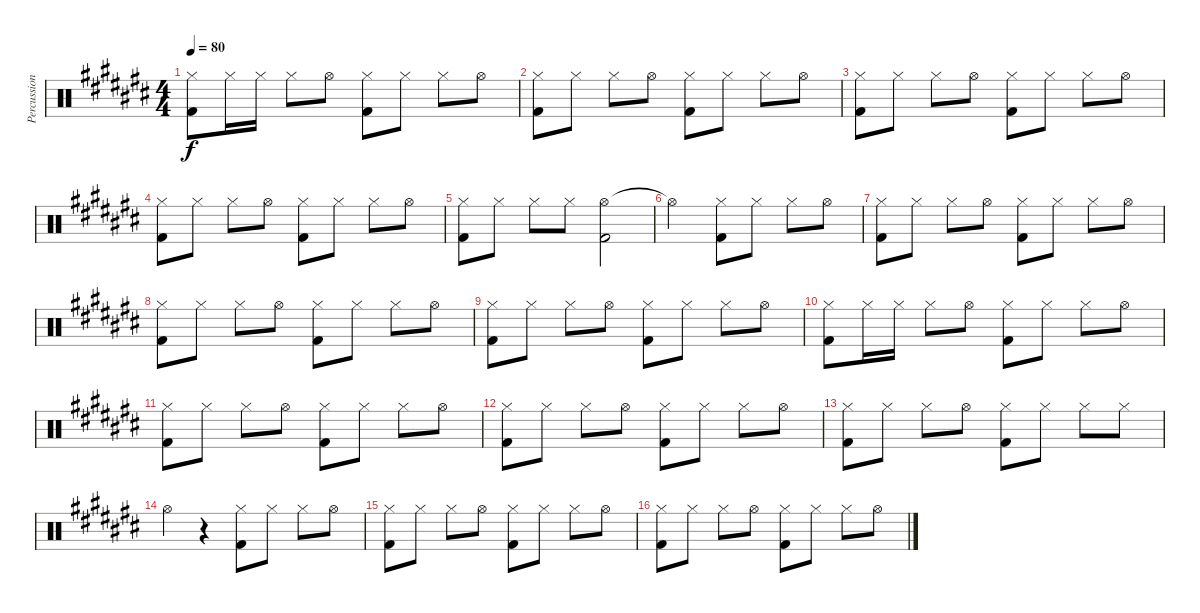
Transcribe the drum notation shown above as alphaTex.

\track ("Percussion" "Percussion") {instrument percussion}
\staff {score}
\articulation defaults
\ts (4 4)
\tempo 80
\clef neutral
\ks c#
("Kick (hit) 2" "Hi-Hat (closed)").8{dy f} "Hi-Hat (closed)".16 "Hi-Hat (closed)".16 "Hi-Hat (closed)".8 "Hi-Hat (open)".8 ("Kick (hit) 2" "Hi-Hat (closed)").8 "Hi-Hat (closed)".8 "Hi-Hat (closed)".8 "Hi-Hat (open)".8 |
("Kick (hit) 2" "Hi-Hat (closed)").8 "Hi-Hat (closed)".8 "Hi-Hat (closed)".8 "Hi-Hat (open)".8 ("Kick (hit) 2" "Hi-Hat (closed)").8 "Hi-Hat (closed)".8 "Hi-Hat (closed)".8 "Hi-Hat (open)".8 |
("Kick (hit) 2" "Hi-Hat (closed)").8 "Hi-Hat (closed)".8 "Hi-Hat (closed)".8 "Hi-Hat (open)".8 ("Kick (hit) 2" "Hi-Hat (closed)").8 "Hi-Hat (closed)".8 "Hi-Hat (closed)".8 "Hi-Hat (open)".8 |
("Kick (hit) 2" "Hi-Hat (closed)").8 "Hi-Hat (closed)".8 "Hi-Hat (closed)".8 "Hi-Hat (open)".8 ("Kick (hit) 2" "Hi-Hat (closed)").8 "Hi-Hat (closed)".8 "Hi-Hat (closed)".8 "Hi-Hat (open)".8 |
("Kick (hit) 2" "Hi-Hat (closed)").8 "Hi-Hat (closed)".8 "Hi-Hat (closed)".8 "Hi-Hat (closed)".8 ("Hi-Hat (open)" "Kick (hit) 2").2 |
"Hi-Hat (open)"{t}.2 ("Kick (hit) 2" "Hi-Hat (closed)").8 "Hi-Hat (closed)".8 "Hi-Hat (closed)".8 "Hi-Hat (open)".8 |
("Kick (hit) 2" "Hi-Hat (closed)").8 "Hi-Hat (closed)".8 "Hi-Hat (closed)".8 "Hi-Hat (open)".8 ("Kick (hit) 2" "Hi-Hat (closed)").8 "Hi-Hat (closed)".8 "Hi-Hat (closed)".8 "Hi-Hat (open)".8 |
("Kick (hit) 2" "Hi-Hat (closed)").8 "Hi-Hat (closed)".8 "Hi-Hat (closed)".8 "Hi-Hat (open)".8 ("Kick (hit) 2" "Hi-Hat (closed)").8 "Hi-Hat (closed)".8 "Hi-Hat (closed)".8 "Hi-Hat (open)".8 |
("Kick (hit) 2" "Hi-Hat (closed)").8 "Hi-Hat (closed)".8 "Hi-Hat (closed)".8 "Hi-Hat (open)".8 ("Kick (hit) 2" "Hi-Hat (closed)").8 "Hi-Hat (closed)".8 "Hi-Hat (closed)".8 "Hi-Hat (open)".8 |
("Kick (hit) 2" "Hi-Hat (closed)").8 "Hi-Hat (closed)".16 "Hi-Hat (closed)".16 "Hi-Hat (closed)".8 "Hi-Hat (open)".8 ("Kick (hit) 2" "Hi-Hat (closed)").8 "Hi-Hat (closed)".8 "Hi-Hat (closed)".8 "Hi-Hat (open)".8 |
("Kick (hit) 2" "Hi-Hat (closed)").8 "Hi-Hat (closed)".8 "Hi-Hat (closed)".8 "Hi-Hat (open)".8 ("Kick (hit) 2" "Hi-Hat (closed)").8 "Hi-Hat (closed)".8 "Hi-Hat (closed)".8 "Hi-Hat (open)".8 |
("Kick (hit) 2" "Hi-Hat (closed)").8 "Hi-Hat (closed)".8 "Hi-Hat (closed)".8 "Hi-Hat (open)".8 ("Kick (hit) 2" "Hi-Hat (closed)").8 "Hi-Hat (closed)".8 "Hi-Hat (closed)".8 "Hi-Hat (open)".8 |
("Kick (hit) 2" "Hi-Hat (closed)").8 "Hi-Hat (closed)".8 "Hi-Hat (closed)".8 "Hi-Hat (open)".8 ("Kick (hit) 2" "Hi-Hat (closed)").8 "Hi-Hat (closed)".8 "Hi-Hat (closed)".8 "Hi-Hat (closed)".8 |
"Hi-Hat (open)".4 r.4 ("Kick (hit) 2" "Hi-Hat (closed)").8 "Hi-Hat (closed)".8 "Hi-Hat (closed)".8 "Hi-Hat (open)".8 |
("Kick (hit) 2" "Hi-Hat (closed)").8 "Hi-Hat (closed)".8 "Hi-Hat (closed)".8 "Hi-Hat (open)".8 ("Kick (hit) 2" "Hi-Hat (closed)").8 "Hi-Hat (closed)".8 "Hi-Hat (closed)".8 "Hi-Hat (open)".8 |
("Kick (hit) 2" "Hi-Hat (closed)").8 "Hi-Hat (closed)".8 "Hi-Hat (closed)".8 "Hi-Hat (open)".8 ("Kick (hit) 2" "Hi-Hat (closed)").8 "Hi-Hat (closed)".8 "Hi-Hat (closed)".8 "Hi-Hat (open)".8
